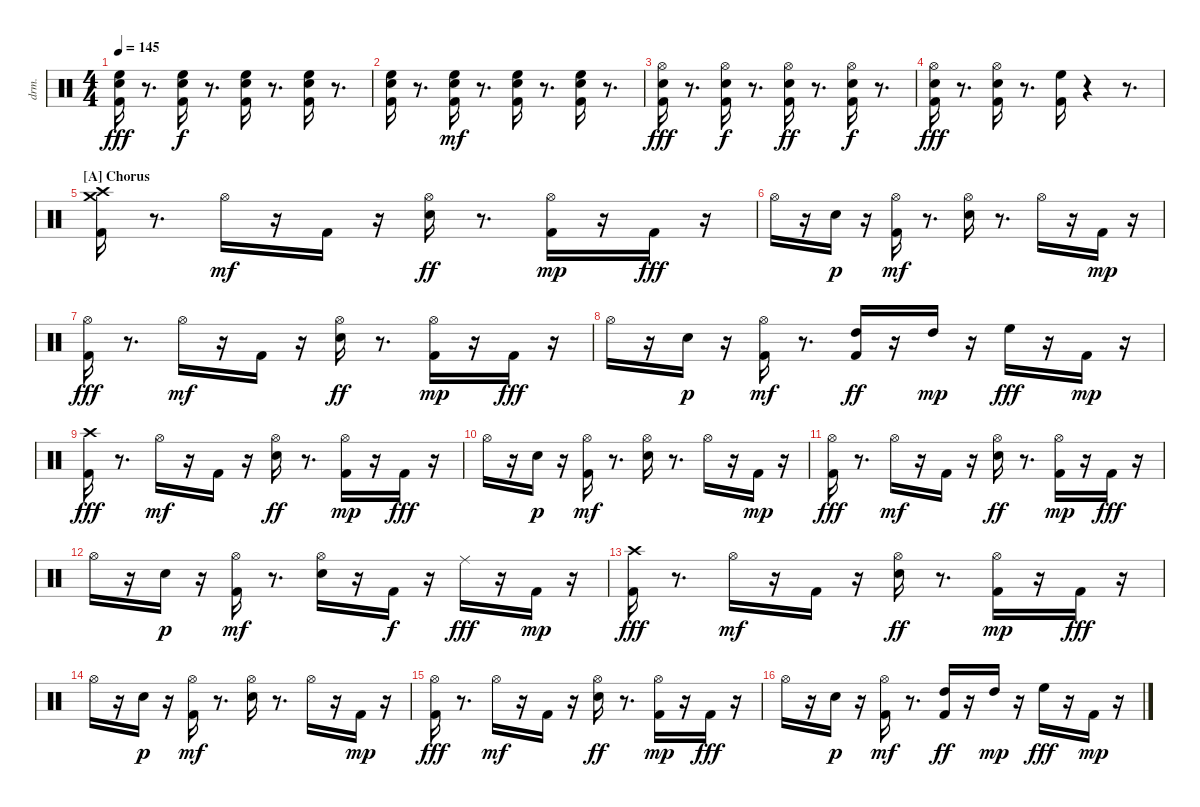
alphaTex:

\bracketExtendMode nobrackets
\track ("EZdrummer 3" "drm.") {instrument percussion}
\staff {score}
\articulation defaults
\ts (4 4)
\tempo 145
\clef neutral
\ks aminor
("Kick (hit) 2" "Snare (hit) 2" "High Floor Tom (hit)").16{dy fff} r.8{d} ("Kick (hit) 2" "Snare (hit) 2" "High Floor Tom (hit)").16{dy f} r.8{d} ("Kick (hit) 2" "Snare (hit) 2" "High Floor Tom (hit)").16 r.8{d} ("Kick (hit) 2" "Snare (hit) 2" "High Floor Tom (hit)").16 r.8{d} |
("Kick (hit) 2" "Snare (hit) 2" "High Floor Tom (hit)").16 r.8{d} ("Kick (hit) 2" "Snare (hit) 2" "High Floor Tom (hit)").16{dy mf} r.8{d} ("Kick (hit) 2" "Snare (hit) 2" "High Floor Tom (hit)").16 r.8{d} ("Kick (hit) 2" "Snare (hit) 2" "High Floor Tom (hit)").16 r.8{d} |
("Kick (hit) 2" "Snare (hit) 2" "Hi-Hat (open)"{acc #}).16{dy fff} r.8{d} ("Kick (hit) 2" "Snare (hit) 2" "Hi-Hat (open)"{acc #}).16{dy f} r.8{d} ("Kick (hit) 2" "Snare (hit) 2" "Hi-Hat (open)"{acc #}).16{dy ff} r.8{d} ("Kick (hit) 2" "Snare (hit) 2" "Hi-Hat (open)"{acc #}).16{dy f} r.8{d} |
("Kick (hit) 2" "Snare (hit) 2" "Hi-Hat (open)"{acc #}).16{dy fff} r.8{d} ("Kick (hit) 2" "Snare (hit) 2" "Hi-Hat (open)"{acc #}).16 r.8{d} ("Kick (hit) 2" "High Floor Tom (hit)").16 r.4 r.8{d} |
\section ("A" "Chorus")
("Kick (hit) 2" "Crash high (hit)"{acc #} "Crash medium (hit)").16 r.8{d} "Hi-Hat (open)"{acc #}.16{dy mf} r.16 "Kick (hit) 2".16 r.16 ("Snare (hit) 2" "Hi-Hat (open)"{acc #}).16{dy ff} r.8{d} ("Kick (hit) 2" "Hi-Hat (open)"{acc #}).16{dy mp} r.16 "Kick (hit) 2".16{dy fff} r.16 |
"Hi-Hat (open)"{acc #}.16 r.16 "Snare (hit) 2".16{dy p} r.16 ("Kick (hit) 2" "Hi-Hat (open)"{acc #}).16{dy mf} r.8{d} ("Snare (hit) 2" "Hi-Hat (open)"{acc #}).16 r.8{d} "Hi-Hat (open)"{acc #}.16 r.16 "Kick (hit) 2".16{dy mp} r.16 |
("Kick (hit) 2" "Hi-Hat (open)"{acc #}).16{dy fff} r.8{d} "Hi-Hat (open)"{acc #}.16{dy mf} r.16 "Kick (hit) 2".16 r.16 ("Snare (hit) 2" "Hi-Hat (open)"{acc #}).16{dy ff} r.8{d} ("Kick (hit) 2" "Hi-Hat (open)"{acc #}).16{dy mp} r.16 "Kick (hit) 2".16{dy fff} r.16 |
"Hi-Hat (open)"{acc #}.16 r.16 "Snare (hit) 2".16{dy p} r.16 ("Kick (hit) 2" "Hi-Hat (open)"{acc #}).16{dy mf} r.8{d} ("Kick (hit) 2" "High Tom (hit)").16{dy ff} r.16 "High Tom (hit)".16{dy mp} r.16 "High Floor Tom (hit)".16{dy fff} r.16 "Kick (hit) 2".16{dy mp} r.16 |
("Kick (hit) 2" "Crash high (hit)"{acc #}).16{dy fff} r.8{d} "Hi-Hat (open)"{acc #}.16{dy mf} r.16 "Kick (hit) 2".16 r.16 ("Snare (hit) 2" "Hi-Hat (open)"{acc #}).16{dy ff} r.8{d} ("Kick (hit) 2" "Hi-Hat (open)"{acc #}).16{dy mp} r.16 "Kick (hit) 2".16{dy fff} r.16 |
"Hi-Hat (open)"{acc #}.16 r.16 "Snare (hit) 2".16{dy p} r.16 ("Kick (hit) 2" "Hi-Hat (open)"{acc #}).16{dy mf} r.8{d} ("Snare (hit) 2" "Hi-Hat (open)"{acc #}).16 r.8{d} "Hi-Hat (open)"{acc #}.16 r.16 "Kick (hit) 2".16{dy mp} r.16 |
("Kick (hit) 2" "Hi-Hat (open)"{acc #}).16{dy fff} r.8{d} "Hi-Hat (open)"{acc #}.16{dy mf} r.16 "Kick (hit) 2".16 r.16 ("Snare (hit) 2" "Hi-Hat (open)"{acc #}).16{dy ff} r.8{d} ("Kick (hit) 2" "Hi-Hat (open)"{acc #}).16{dy mp} r.16 "Kick (hit) 2".16{dy fff} r.16 |
"Hi-Hat (open)"{acc #}.16 r.16 "Snare (hit) 2".16{dy p} r.16 ("Kick (hit) 2" "Hi-Hat (open)"{acc #}).16{dy mf} r.8{d} ("Snare (hit) 2" "Hi-Hat (open)"{acc #}).16 r.16 "Kick (hit) 2".16{dy f} r.16 "Ride (middle)"{acc #}.16{dy fff} r.16 "Kick (hit) 2".16{dy mp} r.16 |
("Kick (hit) 2" "Crash high (hit)"{acc #}).16{dy fff} r.8{d} "Hi-Hat (open)"{acc #}.16{dy mf} r.16 "Kick (hit) 2".16 r.16 ("Snare (hit) 2" "Hi-Hat (open)"{acc #}).16{dy ff} r.8{d} ("Kick (hit) 2" "Hi-Hat (open)"{acc #}).16{dy mp} r.16 "Kick (hit) 2".16{dy fff} r.16 |
"Hi-Hat (open)"{acc #}.16 r.16 "Snare (hit) 2".16{dy p} r.16 ("Kick (hit) 2" "Hi-Hat (open)"{acc #}).16{dy mf} r.8{d} ("Snare (hit) 2" "Hi-Hat (open)"{acc #}).16 r.8{d} "Hi-Hat (open)"{acc #}.16 r.16 "Kick (hit) 2".16{dy mp} r.16 |
("Kick (hit) 2" "Hi-Hat (open)"{acc #}).16{dy fff} r.8{d} "Hi-Hat (open)"{acc #}.16{dy mf} r.16 "Kick (hit) 2".16 r.16 ("Snare (hit) 2" "Hi-Hat (open)"{acc #}).16{dy ff} r.8{d} ("Kick (hit) 2" "Hi-Hat (open)"{acc #}).16{dy mp} r.16 "Kick (hit) 2".16{dy fff} r.16 |
"Hi-Hat (open)"{acc #}.16 r.16 "Snare (hit) 2".16{dy p} r.16 ("Kick (hit) 2" "Hi-Hat (open)"{acc #}).16{dy mf} r.8{d} ("Kick (hit) 2" "High Tom (hit)").16{dy ff} r.16 "High Tom (hit)".16{dy mp} r.16 "High Floor Tom (hit)".16{dy fff} r.16 "Kick (hit) 2".16{dy mp} r.16
